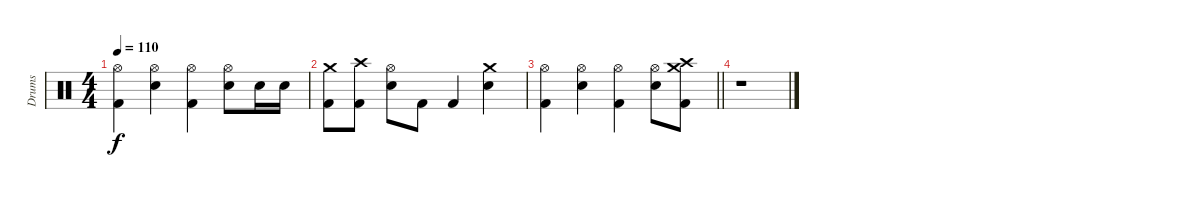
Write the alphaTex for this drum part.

\track ("Drums" "Drums") {instrument percussion}
\staff {score}
\articulation defaults
\ts (4 4)
\tempo 110
\clef neutral
\ks c
("Hi-Hat (open)" "Kick (hit) 2").4{dy f} ("Hi-Hat (open)" "Snare (hit) 2").4 ("Hi-Hat (open)" "Kick (hit) 2").4 ("Hi-Hat (open)" "Snare (hit) 2").8 "Snare (hit) 2".16 "Snare (hit) 2".16 |
("Crash medium (hit)" "Kick (hit) 2").8 ("Crash high (hit)" "Kick (hit) 2").8 ("Hi-Hat (open)" "Snare (hit) 2").8 "Kick (hit) 2".8 "Kick (hit) 2".4 ("Crash medium (hit)" "Snare (hit) 2").4 |
\barLineRight lightlight
("Hi-Hat (open)" "Kick (hit) 2").4 ("Hi-Hat (open)" "Snare (hit) 2").4 ("Hi-Hat (open)" "Kick (hit) 2").4 ("Hi-Hat (open)" "Snare (hit) 2").8 ("Crash high (hit)" "Crash medium (hit)" "Kick (hit) 2").8 |
r.1
